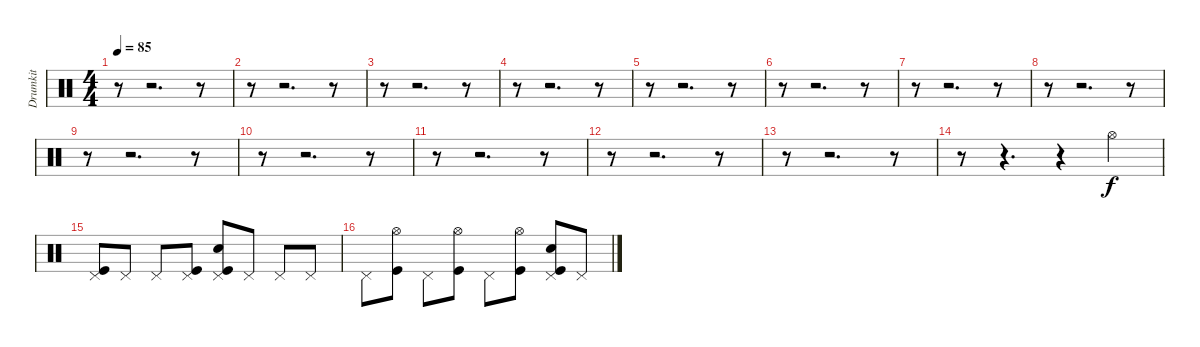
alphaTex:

\track ("Drumkit" "Drumkit") {instrument percussion}
\staff {score}
\articulation defaults
\ts (4 4)
\tempo 85
\clef neutral
\ks c
r.8{dy f} r.2{d} r.8 |
r.8 r.2{d} r.8 |
r.8 r.2{d} r.8 |
r.8 r.2{d} r.8 |
r.8 r.2{d} r.8 |
r.8 r.2{d} r.8 |
r.8 r.2{d} r.8 |
r.8 r.2{d} r.8 |
r.8 r.2{d} r.8 |
r.8 r.2{d} r.8 |
r.8 r.2{d} r.8 |
r.8 r.2{d} r.8 |
r.8 r.2{d} r.8 |
r.8 r.4{d} r.4 "Hi-Hat (open)".4 |
("Pedal Hi-Hat (hit)" "Kick (hit)").8 "Pedal Hi-Hat (hit)".8 "Pedal Hi-Hat (hit)".8 ("Pedal Hi-Hat (hit)" "Kick (hit)").8 ("Pedal Hi-Hat (hit)" "Snare (hit) 2" "Kick (hit)").8 "Pedal Hi-Hat (hit)".8 "Pedal Hi-Hat (hit)".8 "Pedal Hi-Hat (hit)".8 |
"Pedal Hi-Hat (hit)".8 ("Hi-Hat (open)" "Kick (hit)").8 "Pedal Hi-Hat (hit)".8 ("Hi-Hat (open)" "Kick (hit)").8 "Pedal Hi-Hat (hit)".8 ("Hi-Hat (open)" "Kick (hit)").8 ("Pedal Hi-Hat (hit)" "Snare (hit) 2" "Kick (hit)").8 "Pedal Hi-Hat (hit)".8
